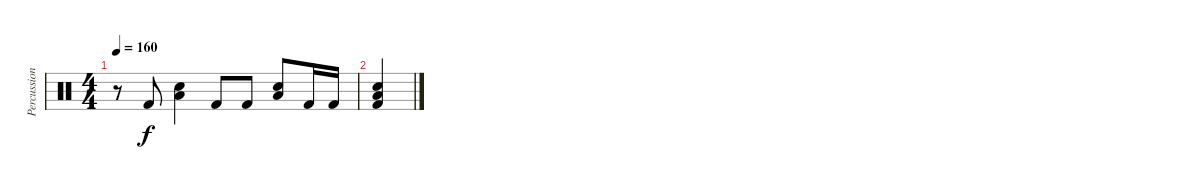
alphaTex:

\track ("Percussions" "Percussion") {instrument percussion}
\staff {score}
\articulation defaults
\ts (4 4)
\tempo 160
\clef neutral
\ks c
r.8{dy f} "Kick (hit) 2".8 ("Electric Snare (hit)" "Low Tom (hit)").4 "Kick (hit) 2".8 "Kick (hit) 2".8 ("Electric Snare (hit)" "Low Tom (hit)").8 "Kick (hit) 2".16 "Kick (hit) 2".16 |
("Kick (hit) 2" "Electric Snare (hit)" "Low Tom (hit)").4
